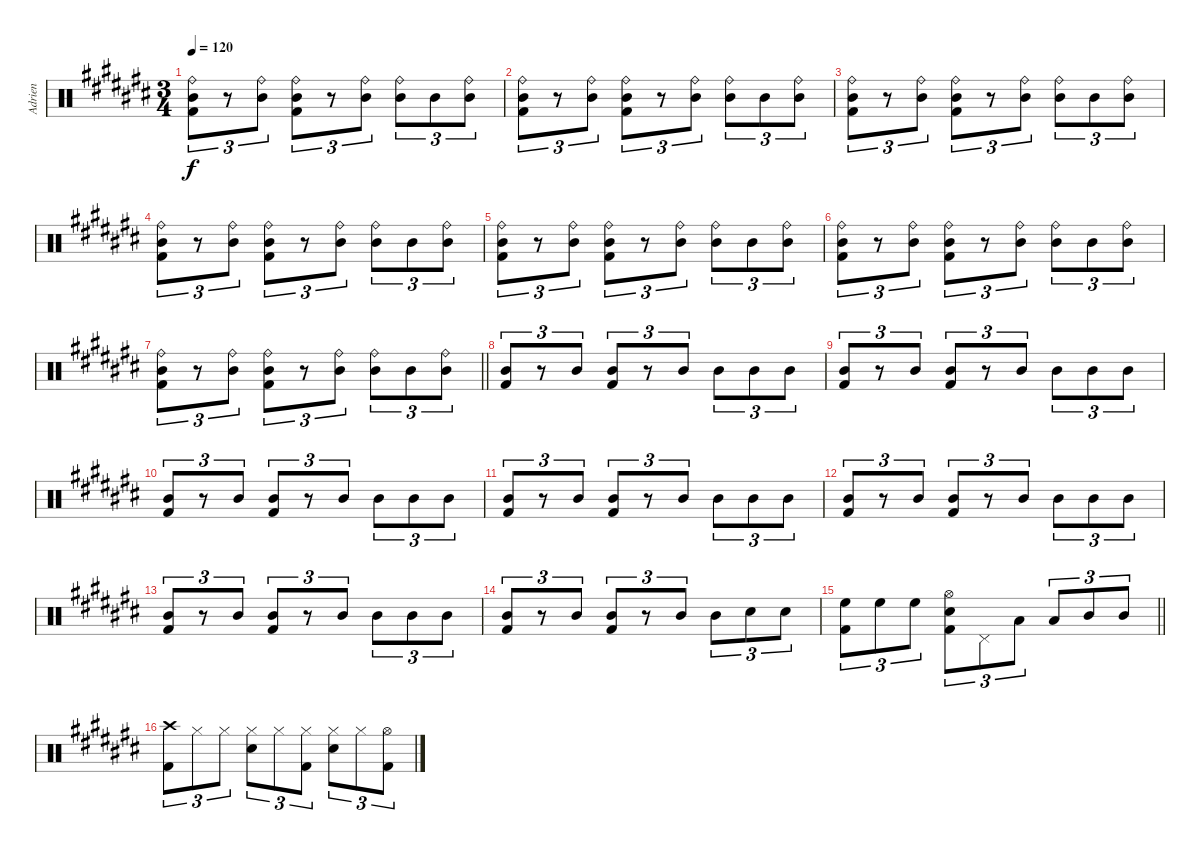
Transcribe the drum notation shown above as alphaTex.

\track ("Adrien" "Adrien") {instrument percussion}
\staff {score}
\articulation defaults
\ts (3 4)
\tempo 120
\clef neutral
\ks c#
("Ride (bell)" "Mid Tom (hit)" "Kick (hit) 2").8{tu (3 2) dy f} r.8{tu (3 2)} ("Ride (bell)" "Mid Tom (hit)").8{tu (3 2)} ("Ride (bell)" "Mid Tom (hit)" "Kick (hit) 2").8{tu (3 2)} r.8{tu (3 2)} ("Ride (bell)" "Mid Tom (hit)").8{tu (3 2)} ("Ride (bell)" "Mid Tom (hit)").8{tu (3 2)} "Mid Tom (hit)".8{tu (3 2)} ("Ride (bell)" "Mid Tom (hit)").8{tu (3 2)} |
("Ride (bell)" "Mid Tom (hit)" "Kick (hit) 2").8{tu (3 2)} r.8{tu (3 2)} ("Ride (bell)" "Mid Tom (hit)").8{tu (3 2)} ("Ride (bell)" "Mid Tom (hit)" "Kick (hit) 2").8{tu (3 2)} r.8{tu (3 2)} ("Ride (bell)" "Mid Tom (hit)").8{tu (3 2)} ("Ride (bell)" "Mid Tom (hit)").8{tu (3 2)} "Mid Tom (hit)".8{tu (3 2)} ("Ride (bell)" "Mid Tom (hit)").8{tu (3 2)} |
("Ride (bell)" "Mid Tom (hit)" "Kick (hit) 2").8{tu (3 2)} r.8{tu (3 2)} ("Ride (bell)" "Mid Tom (hit)").8{tu (3 2)} ("Ride (bell)" "Mid Tom (hit)" "Kick (hit) 2").8{tu (3 2)} r.8{tu (3 2)} ("Ride (bell)" "Mid Tom (hit)").8{tu (3 2)} ("Ride (bell)" "Mid Tom (hit)").8{tu (3 2)} "Mid Tom (hit)".8{tu (3 2)} ("Ride (bell)" "Mid Tom (hit)").8{tu (3 2)} |
("Ride (bell)" "Mid Tom (hit)" "Kick (hit) 2").8{tu (3 2)} r.8{tu (3 2)} ("Ride (bell)" "Mid Tom (hit)").8{tu (3 2)} ("Ride (bell)" "Mid Tom (hit)" "Kick (hit) 2").8{tu (3 2)} r.8{tu (3 2)} ("Ride (bell)" "Mid Tom (hit)").8{tu (3 2)} ("Ride (bell)" "Mid Tom (hit)").8{tu (3 2)} "Mid Tom (hit)".8{tu (3 2)} ("Ride (bell)" "Mid Tom (hit)").8{tu (3 2)} |
("Ride (bell)" "Mid Tom (hit)" "Kick (hit) 2").8{tu (3 2)} r.8{tu (3 2)} ("Ride (bell)" "Mid Tom (hit)").8{tu (3 2)} ("Ride (bell)" "Mid Tom (hit)" "Kick (hit) 2").8{tu (3 2)} r.8{tu (3 2)} ("Ride (bell)" "Mid Tom (hit)").8{tu (3 2)} ("Ride (bell)" "Mid Tom (hit)").8{tu (3 2)} "Mid Tom (hit)".8{tu (3 2)} ("Ride (bell)" "Mid Tom (hit)").8{tu (3 2)} |
("Ride (bell)" "Mid Tom (hit)" "Kick (hit) 2").8{tu (3 2)} r.8{tu (3 2)} ("Ride (bell)" "Mid Tom (hit)").8{tu (3 2)} ("Ride (bell)" "Mid Tom (hit)" "Kick (hit) 2").8{tu (3 2)} r.8{tu (3 2)} ("Ride (bell)" "Mid Tom (hit)").8{tu (3 2)} ("Ride (bell)" "Mid Tom (hit)").8{tu (3 2)} "Mid Tom (hit)".8{tu (3 2)} ("Ride (bell)" "Mid Tom (hit)").8{tu (3 2)} |
\barLineRight lightlight
("Ride (bell)" "Mid Tom (hit)" "Kick (hit) 2").8{tu (3 2)} r.8{tu (3 2)} ("Ride (bell)" "Mid Tom (hit)").8{tu (3 2)} ("Ride (bell)" "Mid Tom (hit)" "Kick (hit) 2").8{tu (3 2)} r.8{tu (3 2)} ("Ride (bell)" "Mid Tom (hit)").8{tu (3 2)} ("Ride (bell)" "Mid Tom (hit)").8{tu (3 2)} "Mid Tom (hit)".8{tu (3 2)} ("Ride (bell)" "Mid Tom (hit)").8{tu (3 2)} |
("Mid Tom (hit)" "Kick (hit) 2").8{tu (3 2)} r.8{tu (3 2)} "Mid Tom (hit)".8{tu (3 2)} ("Mid Tom (hit)" "Kick (hit) 2").8{tu (3 2)} r.8{tu (3 2)} "Mid Tom (hit)".8{tu (3 2)} "Mid Tom (hit)".8{tu (3 2)} "Mid Tom (hit)".8{tu (3 2)} "Mid Tom (hit)".8{tu (3 2)} |
("Mid Tom (hit)" "Kick (hit) 2").8{tu (3 2)} r.8{tu (3 2)} "Mid Tom (hit)".8{tu (3 2)} ("Mid Tom (hit)" "Kick (hit) 2").8{tu (3 2)} r.8{tu (3 2)} "Mid Tom (hit)".8{tu (3 2)} "Mid Tom (hit)".8{tu (3 2)} "Mid Tom (hit)".8{tu (3 2)} "Mid Tom (hit)".8{tu (3 2)} |
("Mid Tom (hit)" "Kick (hit) 2").8{tu (3 2)} r.8{tu (3 2)} "Mid Tom (hit)".8{tu (3 2)} ("Mid Tom (hit)" "Kick (hit) 2").8{tu (3 2)} r.8{tu (3 2)} "Mid Tom (hit)".8{tu (3 2)} "Mid Tom (hit)".8{tu (3 2)} "Mid Tom (hit)".8{tu (3 2)} "Mid Tom (hit)".8{tu (3 2)} |
("Mid Tom (hit)" "Kick (hit) 2").8{tu (3 2)} r.8{tu (3 2)} "Mid Tom (hit)".8{tu (3 2)} ("Mid Tom (hit)" "Kick (hit) 2").8{tu (3 2)} r.8{tu (3 2)} "Mid Tom (hit)".8{tu (3 2)} "Mid Tom (hit)".8{tu (3 2)} "Mid Tom (hit)".8{tu (3 2)} "Mid Tom (hit)".8{tu (3 2)} |
("Mid Tom (hit)" "Kick (hit) 2").8{tu (3 2)} r.8{tu (3 2)} "Mid Tom (hit)".8{tu (3 2)} ("Mid Tom (hit)" "Kick (hit) 2").8{tu (3 2)} r.8{tu (3 2)} "Mid Tom (hit)".8{tu (3 2)} "Mid Tom (hit)".8{tu (3 2)} "Mid Tom (hit)".8{tu (3 2)} "Mid Tom (hit)".8{tu (3 2)} |
("Mid Tom (hit)" "Kick (hit) 2").8{tu (3 2)} r.8{tu (3 2)} "Mid Tom (hit)".8{tu (3 2)} ("Mid Tom (hit)" "Kick (hit) 2").8{tu (3 2)} r.8{tu (3 2)} "Mid Tom (hit)".8{tu (3 2)} "Mid Tom (hit)".8{tu (3 2)} "Mid Tom (hit)".8{tu (3 2)} "Mid Tom (hit)".8{tu (3 2)} |
("Mid Tom (hit)" "Kick (hit) 2").8{tu (3 2)} r.8{tu (3 2)} "Mid Tom (hit)".8{tu (3 2)} ("Mid Tom (hit)" "Kick (hit) 2").8{tu (3 2)} r.8{tu (3 2)} "Mid Tom (hit)".8{tu (3 2)} "Mid Tom (hit)".8{tu (3 2)} "Snare (hit) 2".8{tu (3 2)} "Electric Snare (hit)".8{tu (3 2)} |
\barLineRight lightlight
("High Floor Tom (hit)" "Kick (hit) 2").8{tu (3 2)} "High Floor Tom (hit)".8{tu (3 2)} "High Floor Tom (hit)".8{tu (3 2)} ("Hi-Hat (open)" "Snare (hit) 2" "Kick (hit) 2").8{tu (3 2)} "Pedal Hi-Hat (hit)".8{tu (3 2)} "Low Tom (hit)".8{tu (3 2)} "Low Tom (hit)".8{tu (3 2)} "Mid Tom (hit)".8{tu (3 2)} "Mid Tom (hit)".8{tu (3 2)} |
("Crash high (hit)" "Kick (hit) 2").8{tu (3 2)} "Hi-Hat (closed)".8{tu (3 2)} "Hi-Hat (closed)".8{tu (3 2)} ("Hi-Hat (closed)" "Electric Snare (hit)").8{tu (3 2)} "Hi-Hat (closed)".8{tu (3 2)} ("Hi-Hat (closed)" "Kick (hit) 2").8{tu (3 2)} ("Hi-Hat (closed)" "Electric Snare (hit)").8{tu (3 2)} "Hi-Hat (closed)".8{tu (3 2)} ("Hi-Hat (open)" "Kick (hit) 2").8{tu (3 2)}
